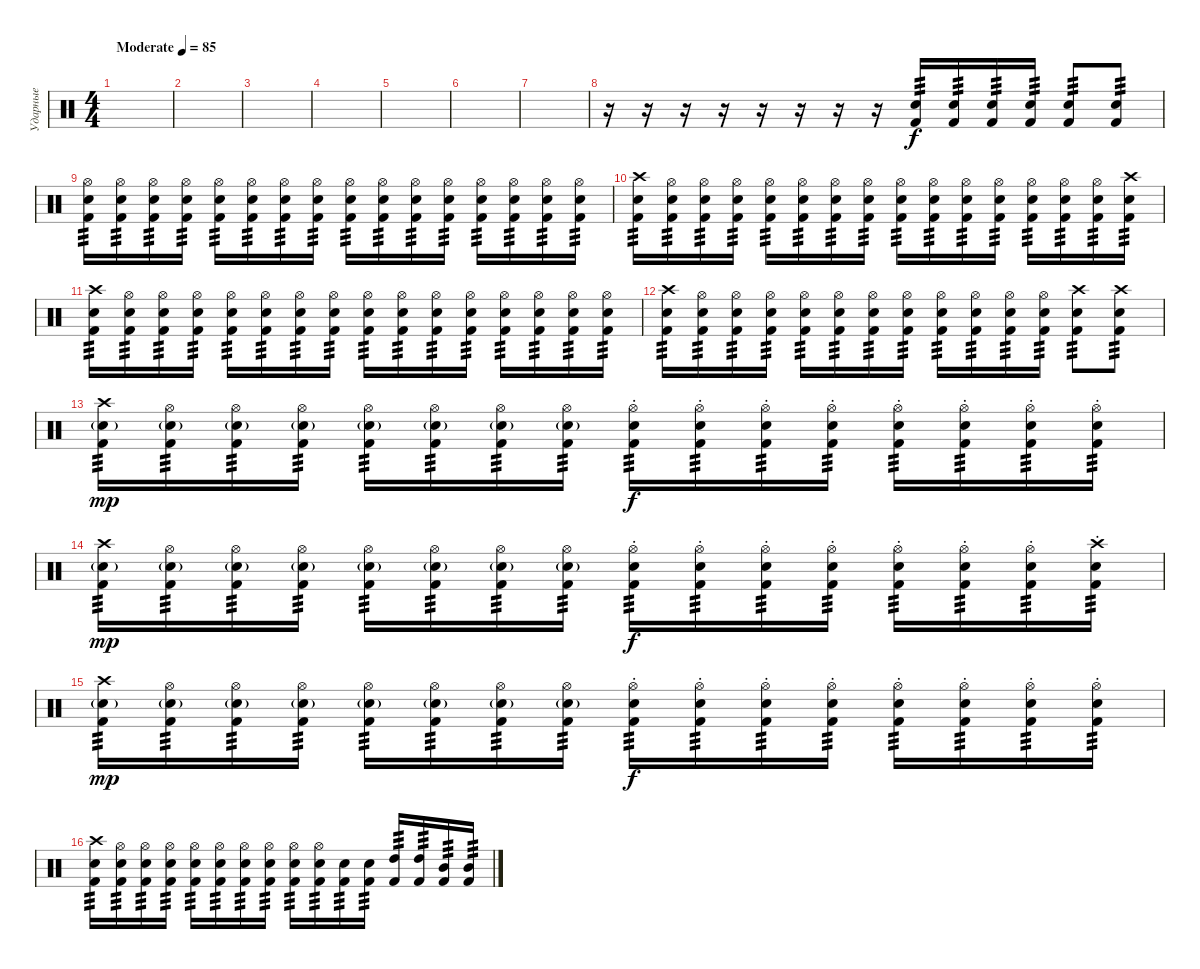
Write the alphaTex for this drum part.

\track ("Ударные" "Ударные") {instrument percussion}
\staff {score}
\articulation defaults
\ts (4 4)
\tempo (85 "Moderate")
\clef neutral
\ks c
|
|
|
|
|
|
|
r.16 r.16 r.16 r.16 r.16 r.16 r.16 r.16 ("Snare (hit) 2" "Kick (hit) 2").16{tp 3} ("Snare (hit) 2" "Kick (hit) 2").16{tp 3} ("Snare (hit) 2" "Kick (hit) 2").16{tp 3} ("Snare (hit) 2" "Kick (hit) 2").16{tp 3} ("Snare (hit) 2" "Kick (hit) 2").8{tp 3} ("Snare (hit) 2" "Kick (hit) 2").8{tp 3} |
("Hi-Hat (open)" "Snare (hit) 2" "Kick (hit) 2").16{tp 3} ("Hi-Hat (open)" "Snare (hit) 2" "Kick (hit) 2").16{tp 3} ("Hi-Hat (open)" "Snare (hit) 2" "Kick (hit) 2").16{tp 3} ("Hi-Hat (open)" "Snare (hit) 2" "Kick (hit) 2").16{tp 3} ("Hi-Hat (open)" "Snare (hit) 2" "Kick (hit) 2").16{tp 3} ("Hi-Hat (open)" "Snare (hit) 2" "Kick (hit) 2").16{tp 3} ("Hi-Hat (open)" "Snare (hit) 2" "Kick (hit) 2").16{tp 3} ("Hi-Hat (open)" "Snare (hit) 2" "Kick (hit) 2").16{tp 3} ("Hi-Hat (open)" "Snare (hit) 2" "Kick (hit) 2").16{tp 3} ("Hi-Hat (open)" "Snare (hit) 2" "Kick (hit) 2").16{tp 3} ("Hi-Hat (open)" "Snare (hit) 2" "Kick (hit) 2").16{tp 3} ("Hi-Hat (open)" "Snare (hit) 2" "Kick (hit) 2").16{tp 3} ("Hi-Hat (open)" "Snare (hit) 2" "Kick (hit) 2").16{tp 3} ("Hi-Hat (open)" "Snare (hit) 2" "Kick (hit) 2").16{tp 3} ("Hi-Hat (open)" "Snare (hit) 2" "Kick (hit) 2").16{tp 3} ("Hi-Hat (open)" "Snare (hit) 2" "Kick (hit) 2").16{tp 3} |
("Crash high (hit)" "Snare (hit) 2" "Kick (hit) 2").16{tp 3} ("Hi-Hat (open)" "Snare (hit) 2" "Kick (hit) 2").16{tp 3} ("Hi-Hat (open)" "Snare (hit) 2" "Kick (hit) 2").16{tp 3} ("Hi-Hat (open)" "Snare (hit) 2" "Kick (hit) 2").16{tp 3} ("Hi-Hat (open)" "Snare (hit) 2" "Kick (hit) 2").16{tp 3} ("Hi-Hat (open)" "Snare (hit) 2" "Kick (hit) 2").16{tp 3} ("Hi-Hat (open)" "Snare (hit) 2" "Kick (hit) 2").16{tp 3} ("Hi-Hat (open)" "Snare (hit) 2" "Kick (hit) 2").16{tp 3} ("Hi-Hat (open)" "Snare (hit) 2" "Kick (hit) 2").16{tp 3} ("Hi-Hat (open)" "Snare (hit) 2" "Kick (hit) 2").16{tp 3} ("Hi-Hat (open)" "Snare (hit) 2" "Kick (hit) 2").16{tp 3} ("Hi-Hat (open)" "Snare (hit) 2" "Kick (hit) 2").16{tp 3} ("Hi-Hat (open)" "Snare (hit) 2" "Kick (hit) 2").16{tp 3} ("Hi-Hat (open)" "Snare (hit) 2" "Kick (hit) 2").16{tp 3} ("Hi-Hat (open)" "Snare (hit) 2" "Kick (hit) 2").16{tp 3} ("Crash high (hit)" "Snare (hit) 2" "Kick (hit) 2").16{tp 3} |
("Crash high (hit)" "Snare (hit) 2" "Kick (hit) 2").16{tp 3} ("Hi-Hat (open)" "Snare (hit) 2" "Kick (hit) 2").16{tp 3} ("Hi-Hat (open)" "Snare (hit) 2" "Kick (hit) 2").16{tp 3} ("Hi-Hat (open)" "Snare (hit) 2" "Kick (hit) 2").16{tp 3} ("Hi-Hat (open)" "Snare (hit) 2" "Kick (hit) 2").16{tp 3} ("Hi-Hat (open)" "Snare (hit) 2" "Kick (hit) 2").16{tp 3} ("Hi-Hat (open)" "Snare (hit) 2" "Kick (hit) 2").16{tp 3} ("Hi-Hat (open)" "Snare (hit) 2" "Kick (hit) 2").16{tp 3} ("Hi-Hat (open)" "Snare (hit) 2" "Kick (hit) 2").16{tp 3} ("Hi-Hat (open)" "Snare (hit) 2" "Kick (hit) 2").16{tp 3} ("Hi-Hat (open)" "Snare (hit) 2" "Kick (hit) 2").16{tp 3} ("Hi-Hat (open)" "Snare (hit) 2" "Kick (hit) 2").16{tp 3} ("Hi-Hat (open)" "Snare (hit) 2" "Kick (hit) 2").16{tp 3} ("Hi-Hat (open)" "Snare (hit) 2" "Kick (hit) 2").16{tp 3} ("Hi-Hat (open)" "Snare (hit) 2" "Kick (hit) 2").16{tp 3} ("Hi-Hat (open)" "Snare (hit) 2" "Kick (hit) 2").16{tp 3} |
("Crash high (hit)" "Snare (hit) 2" "Kick (hit) 2").16{tp 3} ("Hi-Hat (open)" "Snare (hit) 2" "Kick (hit) 2").16{tp 3} ("Hi-Hat (open)" "Snare (hit) 2" "Kick (hit) 2").16{tp 3} ("Hi-Hat (open)" "Snare (hit) 2" "Kick (hit) 2").16{tp 3} ("Hi-Hat (open)" "Snare (hit) 2" "Kick (hit) 2").16{tp 3} ("Hi-Hat (open)" "Snare (hit) 2" "Kick (hit) 2").16{tp 3} ("Hi-Hat (open)" "Snare (hit) 2" "Kick (hit) 2").16{tp 3} ("Hi-Hat (open)" "Snare (hit) 2" "Kick (hit) 2").16{tp 3} ("Hi-Hat (open)" "Snare (hit) 2" "Kick (hit) 2").16{tp 3} ("Hi-Hat (open)" "Snare (hit) 2" "Kick (hit) 2").16{tp 3} ("Hi-Hat (open)" "Snare (hit) 2" "Kick (hit) 2").16{tp 3} ("Hi-Hat (open)" "Snare (hit) 2" "Kick (hit) 2").16{tp 3} ("Crash high (hit)" "Snare (hit) 2" "Kick (hit) 2").8{tp 3} ("Crash high (hit)" "Snare (hit) 2" "Kick (hit) 2").8{tp 3} |
("Crash high (hit)" "Snare (hit) 2"{g} "Kick (hit) 2").16{tp 3 dy mp} ("Hi-Hat (open)" "Snare (hit) 2"{g} "Kick (hit) 2").16{tp 3} ("Hi-Hat (open)" "Snare (hit) 2"{g} "Kick (hit) 2").16{tp 3} ("Hi-Hat (open)" "Snare (hit) 2"{g} "Kick (hit) 2").16{tp 3} ("Hi-Hat (open)" "Snare (hit) 2"{g} "Kick (hit) 2").16{tp 3} ("Hi-Hat (open)" "Snare (hit) 2"{g} "Kick (hit) 2").16{tp 3} ("Hi-Hat (open)" "Snare (hit) 2"{g} "Kick (hit) 2").16{tp 3} ("Hi-Hat (open)" "Snare (hit) 2"{g} "Kick (hit) 2").16{tp 3} ("Hi-Hat (open)" "Snare (hit) 2"{st} "Kick (hit) 2").16{tp 3 dy f} ("Hi-Hat (open)" "Snare (hit) 2"{st} "Kick (hit) 2").16{tp 3} ("Hi-Hat (open)" "Snare (hit) 2"{st} "Kick (hit) 2").16{tp 3} ("Hi-Hat (open)" "Snare (hit) 2"{st} "Kick (hit) 2").16{tp 3} ("Hi-Hat (open)" "Snare (hit) 2"{st} "Kick (hit) 2").16{tp 3} ("Hi-Hat (open)" "Snare (hit) 2"{st} "Kick (hit) 2").16{tp 3} ("Hi-Hat (open)" "Snare (hit) 2"{st} "Kick (hit) 2").16{tp 3} ("Hi-Hat (open)" "Snare (hit) 2"{st} "Kick (hit) 2").16{tp 3} |
("Crash high (hit)" "Snare (hit) 2"{g} "Kick (hit) 2").16{tp 3 dy mp} ("Hi-Hat (open)" "Snare (hit) 2"{g} "Kick (hit) 2").16{tp 3} ("Hi-Hat (open)" "Snare (hit) 2"{g} "Kick (hit) 2").16{tp 3} ("Hi-Hat (open)" "Snare (hit) 2"{g} "Kick (hit) 2").16{tp 3} ("Hi-Hat (open)" "Snare (hit) 2"{g} "Kick (hit) 2").16{tp 3} ("Hi-Hat (open)" "Snare (hit) 2"{g} "Kick (hit) 2").16{tp 3} ("Hi-Hat (open)" "Snare (hit) 2"{g} "Kick (hit) 2").16{tp 3} ("Hi-Hat (open)" "Snare (hit) 2"{g} "Kick (hit) 2").16{tp 3} ("Hi-Hat (open)" "Snare (hit) 2"{st} "Kick (hit) 2").16{tp 3 dy f} ("Hi-Hat (open)" "Snare (hit) 2"{st} "Kick (hit) 2").16{tp 3} ("Hi-Hat (open)" "Snare (hit) 2"{st} "Kick (hit) 2").16{tp 3} ("Hi-Hat (open)" "Snare (hit) 2"{st} "Kick (hit) 2").16{tp 3} ("Hi-Hat (open)" "Snare (hit) 2"{st} "Kick (hit) 2").16{tp 3} ("Hi-Hat (open)" "Snare (hit) 2"{st} "Kick (hit) 2").16{tp 3} ("Hi-Hat (open)" "Snare (hit) 2"{st} "Kick (hit) 2").16{tp 3} ("Crash high (hit)" "Snare (hit) 2"{st} "Kick (hit) 2").16{tp 3} |
("Crash high (hit)" "Snare (hit) 2"{g} "Kick (hit) 2").16{tp 3 dy mp} ("Hi-Hat (open)" "Snare (hit) 2"{g} "Kick (hit) 2").16{tp 3} ("Hi-Hat (open)" "Snare (hit) 2"{g} "Kick (hit) 2").16{tp 3} ("Hi-Hat (open)" "Snare (hit) 2"{g} "Kick (hit) 2").16{tp 3} ("Hi-Hat (open)" "Snare (hit) 2"{g} "Kick (hit) 2").16{tp 3} ("Hi-Hat (open)" "Snare (hit) 2"{g} "Kick (hit) 2").16{tp 3} ("Hi-Hat (open)" "Snare (hit) 2"{g} "Kick (hit) 2").16{tp 3} ("Hi-Hat (open)" "Snare (hit) 2"{g} "Kick (hit) 2").16{tp 3} ("Hi-Hat (open)" "Snare (hit) 2"{st} "Kick (hit) 2").16{tp 3 dy f} ("Hi-Hat (open)" "Snare (hit) 2"{st} "Kick (hit) 2").16{tp 3} ("Hi-Hat (open)" "Snare (hit) 2"{st} "Kick (hit) 2").16{tp 3} ("Hi-Hat (open)" "Snare (hit) 2"{st} "Kick (hit) 2").16{tp 3} ("Hi-Hat (open)" "Snare (hit) 2"{st} "Kick (hit) 2").16{tp 3} ("Hi-Hat (open)" "Snare (hit) 2"{st} "Kick (hit) 2").16{tp 3} ("Hi-Hat (open)" "Snare (hit) 2"{st} "Kick (hit) 2").16{tp 3} ("Hi-Hat (open)" "Snare (hit) 2"{st} "Kick (hit) 2").16{tp 3} |
("Crash high (hit)" "Snare (hit) 2" "Kick (hit) 2").16{tp 3} ("Hi-Hat (open)" "Snare (hit) 2" "Kick (hit) 2").16{tp 3} ("Hi-Hat (open)" "Snare (hit) 2" "Kick (hit) 2").16{tp 3} ("Hi-Hat (open)" "Snare (hit) 2" "Kick (hit) 2").16{tp 3} ("Hi-Hat (open)" "Snare (hit) 2" "Kick (hit) 2").16{tp 3} ("Hi-Hat (open)" "Snare (hit) 2" "Kick (hit) 2").16{tp 3} ("Hi-Hat (open)" "Snare (hit) 2" "Kick (hit) 2").16{tp 3} ("Hi-Hat (open)" "Snare (hit) 2" "Kick (hit) 2").16{tp 3} ("Hi-Hat (open)" "Snare (hit) 2" "Kick (hit) 2").16{tp 3} ("Hi-Hat (open)" "Snare (hit) 2" "Kick (hit) 2").16{tp 3} ("Snare (hit) 2" "Kick (hit) 2").16{tp 3} ("Snare (hit) 2" "Kick (hit) 2").16{tp 3} ("High Tom (hit)" "Kick (hit) 2").16{tp 3} ("High Tom (hit)" "Kick (hit) 2").16{tp 3} ("Mid Tom (hit)" "Kick (hit) 2").16{tp 3} ("Mid Tom (hit)" "Kick (hit) 2").16{tp 3}
